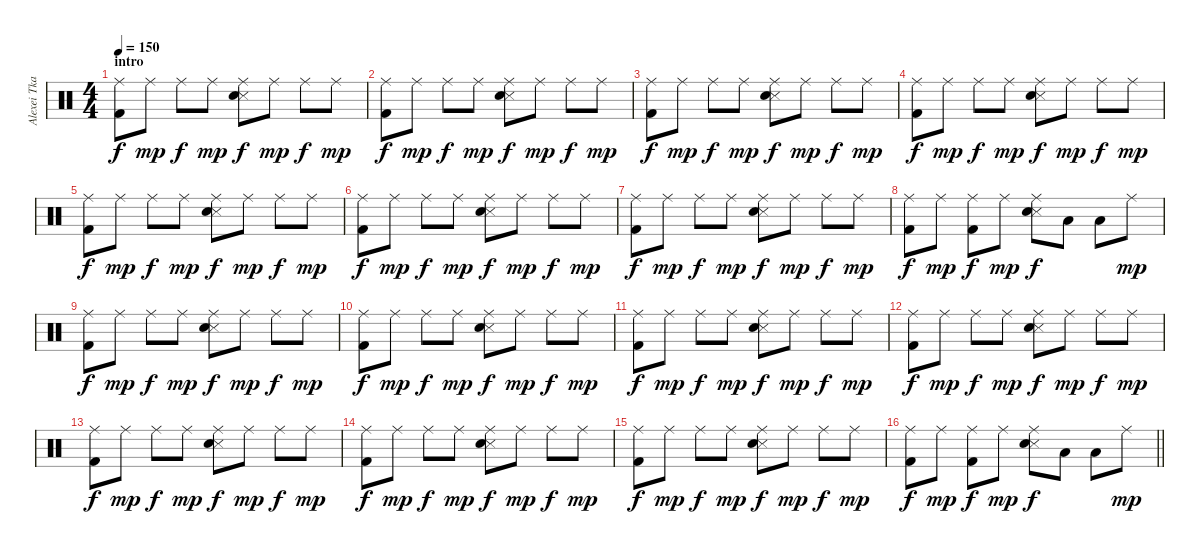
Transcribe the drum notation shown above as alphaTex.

\track ("Alexei Tkachevskiy " "Alexei Tka") {instrument percussion}
\staff {score}
\articulation defaults
\ts (4 4)
\section ("" "intro")
\tempo 150
\clef neutral
\ks c
("Ride (middle)" "Kick (hit) 2").8{dy f} "Ride (middle)".8{dy mp} "Ride (middle)".8{dy f} "Ride (middle)".8{dy mp} ("Ride (middle)" "Snare (side stick) 3" "Snare (hit) 2").8{dy f} "Ride (middle)".8{dy mp} "Ride (middle)".8{dy f} "Ride (middle)".8{dy mp} |
("Ride (middle)" "Kick (hit) 2").8{dy f} "Ride (middle)".8{dy mp} "Ride (middle)".8{dy f} "Ride (middle)".8{dy mp} ("Ride (middle)" "Snare (side stick) 3" "Snare (hit) 2").8{dy f} "Ride (middle)".8{dy mp} "Ride (middle)".8{dy f} "Ride (middle)".8{dy mp} |
("Ride (middle)" "Kick (hit) 2").8{dy f} "Ride (middle)".8{dy mp} "Ride (middle)".8{dy f} "Ride (middle)".8{dy mp} ("Ride (middle)" "Snare (side stick) 3" "Snare (hit) 2").8{dy f} "Ride (middle)".8{dy mp} "Ride (middle)".8{dy f} "Ride (middle)".8{dy mp} |
("Ride (middle)" "Kick (hit) 2").8{dy f} "Ride (middle)".8{dy mp} "Ride (middle)".8{dy f} "Ride (middle)".8{dy mp} ("Ride (middle)" "Snare (side stick) 3" "Snare (hit) 2").8{dy f} "Ride (middle)".8{dy mp} "Ride (middle)".8{dy f} "Ride (middle)".8{dy mp} |
("Ride (middle)" "Kick (hit) 2").8{dy f} "Ride (middle)".8{dy mp} "Ride (middle)".8{dy f} "Ride (middle)".8{dy mp} ("Ride (middle)" "Snare (side stick) 3" "Snare (hit) 2").8{dy f} "Ride (middle)".8{dy mp} "Ride (middle)".8{dy f} "Ride (middle)".8{dy mp} |
("Ride (middle)" "Kick (hit) 2").8{dy f} "Ride (middle)".8{dy mp} "Ride (middle)".8{dy f} "Ride (middle)".8{dy mp} ("Ride (middle)" "Snare (side stick) 3" "Snare (hit) 2").8{dy f} "Ride (middle)".8{dy mp} "Ride (middle)".8{dy f} "Ride (middle)".8{dy mp} |
("Ride (middle)" "Kick (hit) 2").8{dy f} "Ride (middle)".8{dy mp} "Ride (middle)".8{dy f} "Ride (middle)".8{dy mp} ("Ride (middle)" "Snare (side stick) 3" "Snare (hit) 2").8{dy f} "Ride (middle)".8{dy mp} "Ride (middle)".8{dy f} "Ride (middle)".8{dy mp} |
("Ride (middle)" "Kick (hit) 2").8{dy f} "Ride (middle)".8{dy mp} ("Ride (middle)" "Kick (hit) 2").8{dy f} "Ride (middle)".8{dy mp} ("Ride (middle)" "Snare (side stick) 3" "Snare (hit) 2").8{dy f} "Low Tom (hit)".8 "Low Tom (hit)".8 "Ride (middle)".8{dy mp} |
("Ride (middle)" "Kick (hit) 2").8{dy f} "Ride (middle)".8{dy mp} "Ride (middle)".8{dy f} "Ride (middle)".8{dy mp} ("Ride (middle)" "Snare (side stick) 3" "Snare (hit) 2").8{dy f} "Ride (middle)".8{dy mp} "Ride (middle)".8{dy f} "Ride (middle)".8{dy mp} |
("Ride (middle)" "Kick (hit) 2").8{dy f} "Ride (middle)".8{dy mp} "Ride (middle)".8{dy f} "Ride (middle)".8{dy mp} ("Ride (middle)" "Snare (side stick) 3" "Snare (hit) 2").8{dy f} "Ride (middle)".8{dy mp} "Ride (middle)".8{dy f} "Ride (middle)".8{dy mp} |
("Ride (middle)" "Kick (hit) 2").8{dy f} "Ride (middle)".8{dy mp} "Ride (middle)".8{dy f} "Ride (middle)".8{dy mp} ("Ride (middle)" "Snare (side stick) 3" "Snare (hit) 2").8{dy f} "Ride (middle)".8{dy mp} "Ride (middle)".8{dy f} "Ride (middle)".8{dy mp} |
("Ride (middle)" "Kick (hit) 2").8{dy f} "Ride (middle)".8{dy mp} "Ride (middle)".8{dy f} "Ride (middle)".8{dy mp} ("Ride (middle)" "Snare (side stick) 3" "Snare (hit) 2").8{dy f} "Ride (middle)".8{dy mp} "Ride (middle)".8{dy f} "Ride (middle)".8{dy mp} |
("Ride (middle)" "Kick (hit) 2").8{dy f} "Ride (middle)".8{dy mp} "Ride (middle)".8{dy f} "Ride (middle)".8{dy mp} ("Ride (middle)" "Snare (side stick) 3" "Snare (hit) 2").8{dy f} "Ride (middle)".8{dy mp} "Ride (middle)".8{dy f} "Ride (middle)".8{dy mp} |
("Ride (middle)" "Kick (hit) 2").8{dy f} "Ride (middle)".8{dy mp} "Ride (middle)".8{dy f} "Ride (middle)".8{dy mp} ("Ride (middle)" "Snare (side stick) 3" "Snare (hit) 2").8{dy f} "Ride (middle)".8{dy mp} "Ride (middle)".8{dy f} "Ride (middle)".8{dy mp} |
("Ride (middle)" "Kick (hit) 2").8{dy f} "Ride (middle)".8{dy mp} "Ride (middle)".8{dy f} "Ride (middle)".8{dy mp} ("Ride (middle)" "Snare (side stick) 3" "Snare (hit) 2").8{dy f} "Ride (middle)".8{dy mp} "Ride (middle)".8{dy f} "Ride (middle)".8{dy mp} |
\barLineRight lightlight
("Ride (middle)" "Kick (hit) 2").8{dy f} "Ride (middle)".8{dy mp} ("Ride (middle)" "Kick (hit) 2").8{dy f} "Ride (middle)".8{dy mp} ("Ride (middle)" "Snare (side stick) 3" "Snare (hit) 2").8{dy f} "Low Tom (hit)".8 "Low Tom (hit)".8 "Ride (middle)".8{dy mp}
